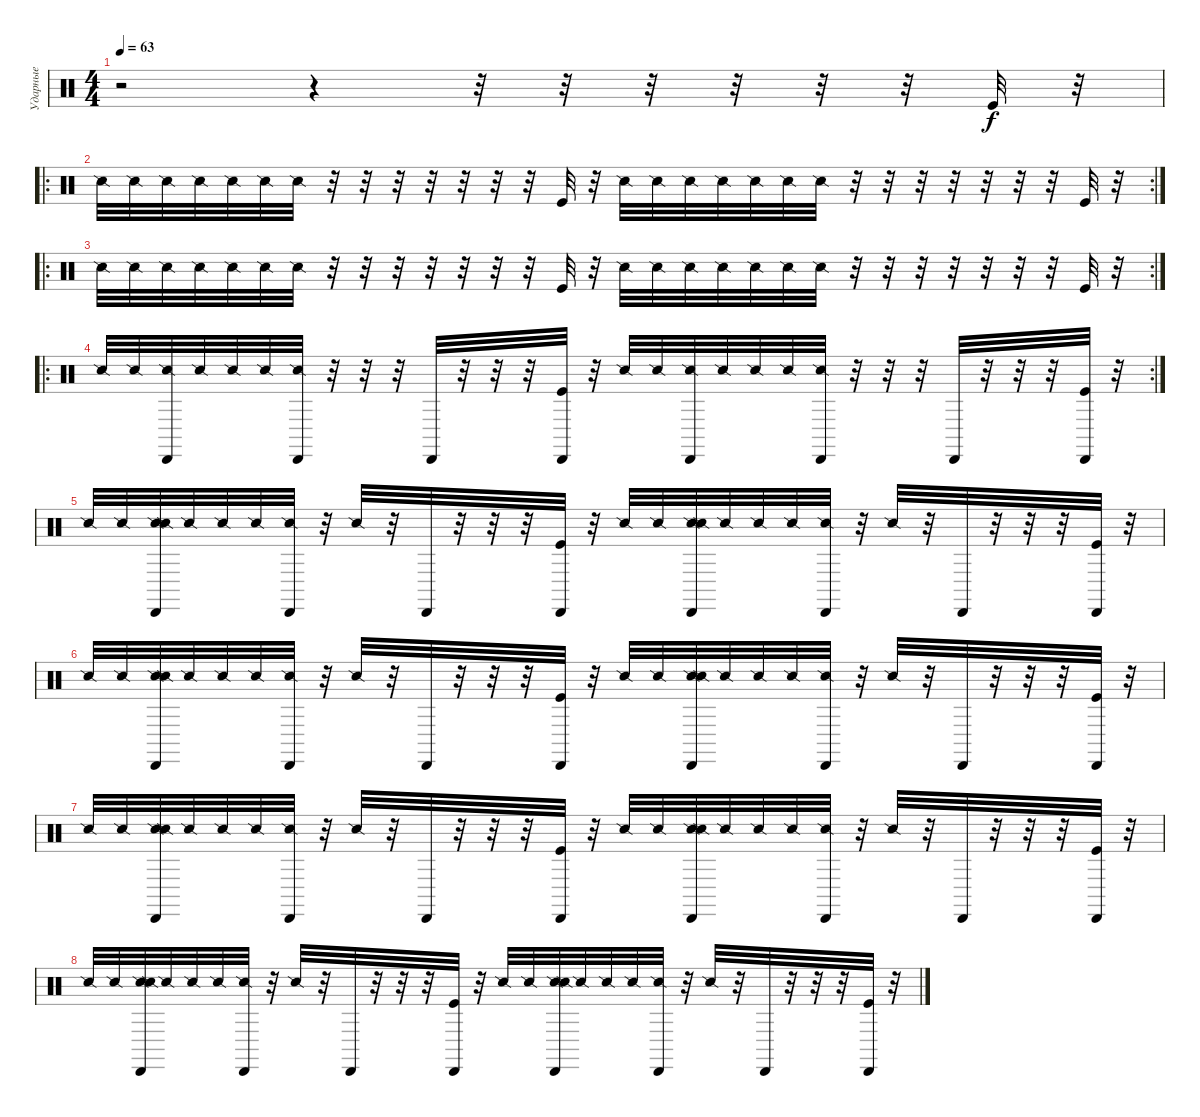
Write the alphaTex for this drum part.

\track ("Ударные" "Ударные") {instrument percussion}
\staff {score}
\articulation defaults
\ts (4 4)
\tempo 63
\clef neutral
\ks c
r.2{dy f} r.4 r.32 r.32 r.32 r.32 r.32 r.32 "Kick (hit)".32 r.32 |
\ro
\rc 2 "Snare (side stick) 2".32 "Snare (side stick) 2".32 "Snare (side stick) 2".32 "Snare (side stick) 2".32 "Snare (side stick) 2".32 "Snare (side stick) 2".32 "Snare (side stick) 2".32
r.32 r.32 r.32 r.32 r.32 r.32 r.32 "Kick (hit)".32 r.32 "Snare (side stick) 2".32 "Snare (side stick) 2".32 "Snare (side stick) 2".32 "Snare (side stick) 2".32 "Snare (side stick) 2".32 "Snare (side stick) 2".32 "Snare (side stick) 2".32 r.32 r.32 r.32 r.32 r.32 r.32 r.32 "Kick (hit)".32 r.32 |
\ro
\rc 2 "Snare (side stick) 2".32 "Snare (side stick) 2".32 "Snare (side stick) 2".32 "Snare (side stick) 2".32 "Snare (side stick) 2".32 "Snare (side stick) 2".32 "Snare (side stick) 2".32
r.32 r.32 r.32 r.32 r.32 r.32 r.32 "Kick (hit)".32 r.32 "Snare (side stick) 2".32 "Snare (side stick) 2".32 "Snare (side stick) 2".32 "Snare (side stick) 2".32 "Snare (side stick) 2".32 "Snare (side stick) 2".32 "Snare (side stick) 2".32 r.32 r.32 r.32 r.32 r.32 r.32 r.32 "Kick (hit)".32 r.32 |
\ro
\rc 2 "Snare (side stick) 2".32 "Snare (side stick) 2".32
("Snare (side stick) 2" "Cabasa (hit)").32 "Snare (side stick) 2".32 "Snare (side stick) 2".32 "Snare (side stick) 2".32 ("Snare (side stick) 2" "Cabasa (hit)").32 r.32 r.32 r.32 "Cabasa (hit)".32 r.32 r.32 r.32 ("Kick (hit)" "Cabasa (hit)").32 r.32 "Snare (side stick) 2".32 "Snare (side stick) 2".32 ("Snare (side stick) 2" "Cabasa (hit)").32 "Snare (side stick) 2".32 "Snare (side stick) 2".32 "Snare (side stick) 2".32 ("Snare (side stick) 2" "Cabasa (hit)").32 r.32 r.32 r.32 "Cabasa (hit)".32 r.32 r.32 r.32 ("Kick (hit)" "Cabasa (hit)").32 r.32 |
"Snare (side stick) 2".32 "Snare (side stick) 2".32 ("Snare (side stick) 2" "Snare (side stick) 2" "Cabasa (hit)").32 "Snare (side stick) 2".32 "Snare (side stick) 2".32 "Snare (side stick) 2".32 ("Snare (side stick) 2" "Cabasa (hit)").32 r.32 "Snare (side stick) 2".32 r.32 "Cabasa (hit)".32 r.32 r.32 r.32 ("Kick (hit)" "Cabasa (hit)").32 r.32 "Snare (side stick) 2".32 "Snare (side stick) 2".32 ("Snare (side stick) 2" "Snare (side stick) 2" "Cabasa (hit)").32 "Snare (side stick) 2".32 "Snare (side stick) 2".32 "Snare (side stick) 2".32 ("Snare (side stick) 2" "Cabasa (hit)").32 r.32 "Snare (side stick) 2".32 r.32 "Cabasa (hit)".32 r.32 r.32 r.32 ("Kick (hit)" "Cabasa (hit)").32 r.32 |
"Snare (side stick) 2".32 "Snare (side stick) 2".32 ("Snare (side stick) 2" "Snare (side stick) 2" "Cabasa (hit)").32 "Snare (side stick) 2".32 "Snare (side stick) 2".32 "Snare (side stick) 2".32 ("Snare (side stick) 2" "Cabasa (hit)").32 r.32 "Snare (side stick) 2".32 r.32 "Cabasa (hit)".32 r.32 r.32 r.32 ("Kick (hit)" "Cabasa (hit)").32 r.32 "Snare (side stick) 2".32 "Snare (side stick) 2".32 ("Snare (side stick) 2" "Snare (side stick) 2" "Cabasa (hit)").32 "Snare (side stick) 2".32 "Snare (side stick) 2".32 "Snare (side stick) 2".32 ("Snare (side stick) 2" "Cabasa (hit)").32 r.32 "Snare (side stick) 2".32 r.32 "Cabasa (hit)".32 r.32 r.32 r.32 ("Kick (hit)" "Cabasa (hit)").32 r.32 |
"Snare (side stick) 2".32 "Snare (side stick) 2".32 ("Snare (side stick) 2" "Snare (side stick) 2" "Cabasa (hit)").32 "Snare (side stick) 2".32 "Snare (side stick) 2".32 "Snare (side stick) 2".32 ("Snare (side stick) 2" "Cabasa (hit)").32 r.32 "Snare (side stick) 2".32 r.32 "Cabasa (hit)".32 r.32 r.32 r.32 ("Kick (hit)" "Cabasa (hit)").32 r.32 "Snare (side stick) 2".32 "Snare (side stick) 2".32 ("Snare (side stick) 2" "Snare (side stick) 2" "Cabasa (hit)").32 "Snare (side stick) 2".32 "Snare (side stick) 2".32 "Snare (side stick) 2".32 ("Snare (side stick) 2" "Cabasa (hit)").32 r.32 "Snare (side stick) 2".32 r.32 "Cabasa (hit)".32 r.32 r.32 r.32 ("Kick (hit)" "Cabasa (hit)").32 r.32 |
"Snare (side stick) 2".32 "Snare (side stick) 2".32 ("Snare (side stick) 2" "Snare (side stick) 2" "Cabasa (hit)").32 "Snare (side stick) 2".32 "Snare (side stick) 2".32 "Snare (side stick) 2".32 ("Snare (side stick) 2" "Cabasa (hit)").32 r.32 "Snare (side stick) 2".32 r.32 "Cabasa (hit)".32 r.32 r.32 r.32 ("Kick (hit)" "Cabasa (hit)").32 r.32 "Snare (side stick) 2".32 "Snare (side stick) 2".32 ("Snare (side stick) 2" "Snare (side stick) 2" "Cabasa (hit)").32 "Snare (side stick) 2".32 "Snare (side stick) 2".32 "Snare (side stick) 2".32 ("Snare (side stick) 2" "Cabasa (hit)").32 r.32 "Snare (side stick) 2".32 r.32 "Cabasa (hit)".32 r.32 r.32 r.32 ("Kick (hit)" "Cabasa (hit)").32 r.32
